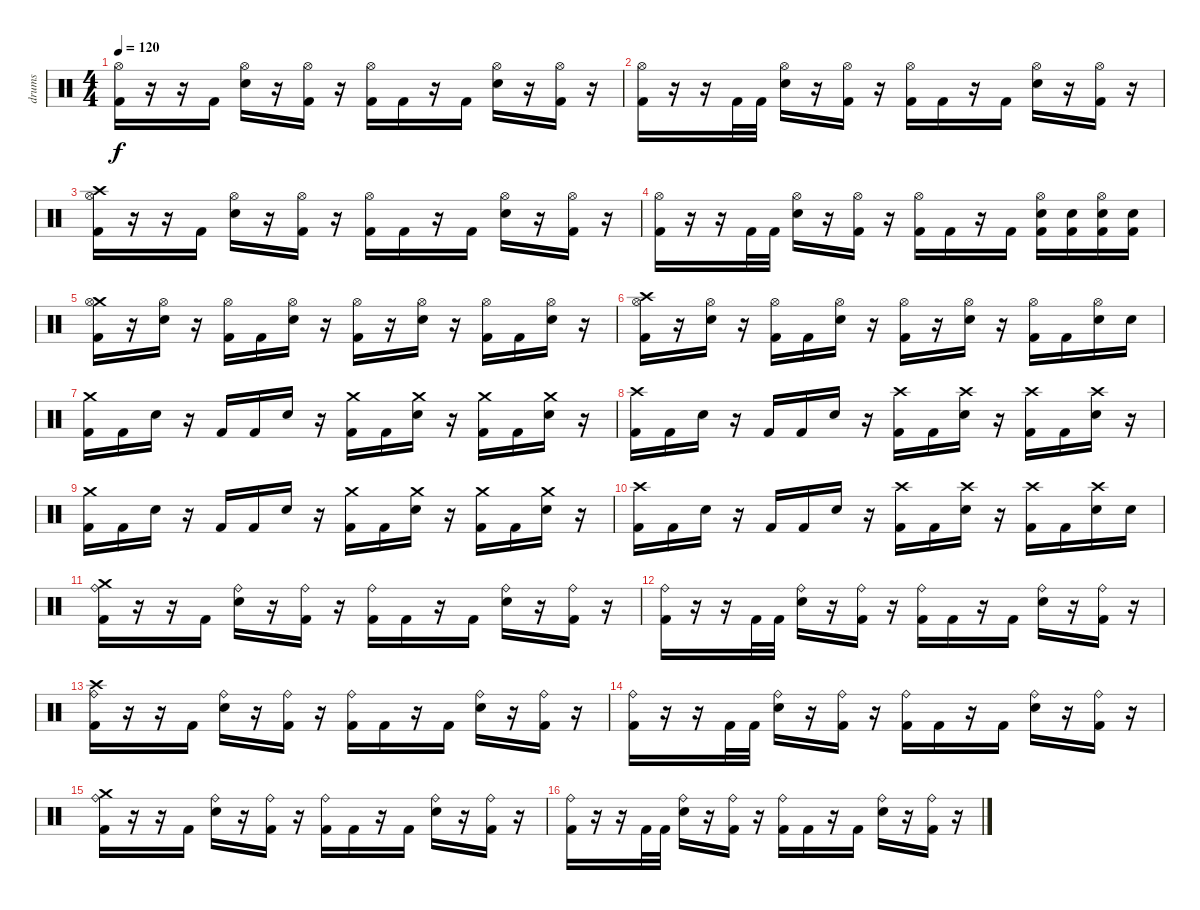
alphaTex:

\track ("drums" "drums") {instrument percussion}
\staff {score}
\articulation defaults
\ts (4 4)
\tempo 120
\clef neutral
\ks c
("Hi-Hat (open)" "Kick (hit) 2").16{dy f} r.16 r.16 "Kick (hit) 2".16 ("Hi-Hat (open)" "Electric Snare (hit)").16 r.16 ("Hi-Hat (open)" "Kick (hit) 2").16 r.16 ("Hi-Hat (open)" "Kick (hit) 2").16 "Kick (hit) 2".16 r.16 "Kick (hit) 2".16 ("Hi-Hat (open)" "Electric Snare (hit)").16 r.16 ("Hi-Hat (open)" "Kick (hit) 2").16 r.16 |
("Hi-Hat (open)" "Kick (hit) 2").16 r.16 r.16 "Kick (hit) 2".32 "Kick (hit) 2".32 ("Hi-Hat (open)" "Electric Snare (hit)").16 r.16 ("Hi-Hat (open)" "Kick (hit) 2").16 r.16 ("Hi-Hat (open)" "Kick (hit) 2").16 "Kick (hit) 2".16 r.16 "Kick (hit) 2".16 ("Hi-Hat (open)" "Electric Snare (hit)").16 r.16 ("Hi-Hat (open)" "Kick (hit) 2").16 r.16 |
("Crash high (hit)" "Hi-Hat (open)" "Kick (hit) 2").16 r.16 r.16 "Kick (hit) 2".16 ("Hi-Hat (open)" "Electric Snare (hit)").16 r.16 ("Hi-Hat (open)" "Kick (hit) 2").16 r.16 ("Hi-Hat (open)" "Kick (hit) 2").16 "Kick (hit) 2".16 r.16 "Kick (hit) 2".16 ("Hi-Hat (open)" "Electric Snare (hit)").16 r.16 ("Hi-Hat (open)" "Kick (hit) 2").16 r.16 |
("Hi-Hat (open)" "Kick (hit) 2").16 r.16 r.16 "Kick (hit) 2".32 "Kick (hit) 2".32 ("Hi-Hat (open)" "Electric Snare (hit)").16 r.16 ("Hi-Hat (open)" "Kick (hit) 2").16 r.16 ("Hi-Hat (open)" "Kick (hit) 2").16 "Kick (hit) 2".16 r.16 "Kick (hit) 2".16 ("Hi-Hat (open)" "Electric Snare (hit)" "Kick (hit) 2").16 ("Electric Snare (hit)" "Kick (hit) 2").16 ("Hi-Hat (open)" "Electric Snare (hit)" "Kick (hit) 2").16 ("Electric Snare (hit)" "Kick (hit) 2").16 |
("Crash medium (hit)" "Hi-Hat (open)" "Kick (hit) 2").16 r.16 ("Hi-Hat (open)" "Electric Snare (hit)").16 r.16 ("Hi-Hat (open)" "Kick (hit) 2").16 "Kick (hit) 2".16 ("Hi-Hat (open)" "Electric Snare (hit)").16 r.16 ("Hi-Hat (open)" "Kick (hit) 2").16 r.16 ("Hi-Hat (open)" "Electric Snare (hit)").16 r.16 ("Hi-Hat (open)" "Kick (hit) 2").16 "Kick (hit) 2".16 ("Hi-Hat (open)" "Electric Snare (hit)").16 r.16 |
("Crash high (hit)" "Hi-Hat (open)" "Kick (hit) 2").16 r.16 ("Hi-Hat (open)" "Electric Snare (hit)").16 r.16 ("Hi-Hat (open)" "Kick (hit) 2").16 "Kick (hit) 2".16 ("Hi-Hat (open)" "Electric Snare (hit)").16 r.16 ("Hi-Hat (open)" "Kick (hit) 2").16 r.16 ("Hi-Hat (open)" "Electric Snare (hit)").16 r.16 ("Hi-Hat (open)" "Kick (hit) 2").16 "Kick (hit) 2".16 ("Hi-Hat (open)" "Electric Snare (hit)").16 "Electric Snare (hit)".16 |
("Crash medium (hit)" "Kick (hit) 2").16 "Kick (hit) 2".16 "Electric Snare (hit)".16 r.16 "Kick (hit) 2".16 "Kick (hit) 2".16 "Electric Snare (hit)".16 r.16 ("Crash medium (hit)" "Kick (hit) 2").16 "Kick (hit) 2".16 ("Crash medium (hit)" "Electric Snare (hit)").16 r.16 ("Crash medium (hit)" "Kick (hit) 2").16 "Kick (hit) 2".16 ("Crash medium (hit)" "Electric Snare (hit)").16 r.16 |
("Crash high (hit)" "Kick (hit) 2").16 "Kick (hit) 2".16 "Electric Snare (hit)".16 r.16 "Kick (hit) 2".16 "Kick (hit) 2".16 "Electric Snare (hit)".16 r.16 ("Crash high (hit)" "Kick (hit) 2").16 "Kick (hit) 2".16 ("Crash high (hit)" "Electric Snare (hit)").16 r.16 ("Crash high (hit)" "Kick (hit) 2").16 "Kick (hit) 2".16 ("Crash high (hit)" "Electric Snare (hit)").16 r.16 |
("Crash medium (hit)" "Kick (hit) 2").16 "Kick (hit) 2".16 "Electric Snare (hit)".16 r.16 "Kick (hit) 2".16 "Kick (hit) 2".16 "Electric Snare (hit)".16 r.16 ("Crash medium (hit)" "Kick (hit) 2").16 "Kick (hit) 2".16 ("Crash medium (hit)" "Electric Snare (hit)").16 r.16 ("Crash medium (hit)" "Kick (hit) 2").16 "Kick (hit) 2".16 ("Crash medium (hit)" "Electric Snare (hit)").16 r.16 |
("Crash high (hit)" "Kick (hit) 2").16 "Kick (hit) 2".16 "Electric Snare (hit)".16 r.16 "Kick (hit) 2".16 "Kick (hit) 2".16 "Electric Snare (hit)".16 r.16 ("Crash high (hit)" "Kick (hit) 2").16 "Kick (hit) 2".16 ("Crash high (hit)" "Electric Snare (hit)").16 r.16 ("Crash high (hit)" "Kick (hit) 2").16 "Kick (hit) 2".16 ("Crash high (hit)" "Electric Snare (hit)").16 "Electric Snare (hit)".16 |
("Crash medium (hit)" "Ride (bell)" "Kick (hit) 2").16 r.16 r.16 "Kick (hit) 2".16 ("Ride (bell)" "Electric Snare (hit)").16 r.16 ("Ride (bell)" "Kick (hit) 2").16 r.16 ("Ride (bell)" "Kick (hit) 2").16 "Kick (hit) 2".16 r.16 "Kick (hit) 2".16 ("Ride (bell)" "Electric Snare (hit)").16 r.16 ("Ride (bell)" "Kick (hit) 2").16 r.16 |
("Ride (bell)" "Kick (hit) 2").16 r.16 r.16 "Kick (hit) 2".32 "Kick (hit) 2".32 ("Ride (bell)" "Electric Snare (hit)").16 r.16 ("Ride (bell)" "Kick (hit) 2").16 r.16 ("Ride (bell)" "Kick (hit) 2").16 "Kick (hit) 2".16 r.16 "Kick (hit) 2".16 ("Ride (bell)" "Electric Snare (hit)").16 r.16 ("Ride (bell)" "Kick (hit) 2").16 r.16 |
("Crash high (hit)" "Ride (bell)" "Kick (hit) 2").16 r.16 r.16 "Kick (hit) 2".16 ("Ride (bell)" "Electric Snare (hit)").16 r.16 ("Ride (bell)" "Kick (hit) 2").16 r.16 ("Ride (bell)" "Kick (hit) 2").16 "Kick (hit) 2".16 r.16 "Kick (hit) 2".16 ("Ride (bell)" "Electric Snare (hit)").16 r.16 ("Ride (bell)" "Kick (hit) 2").16 r.16 |
("Ride (bell)" "Kick (hit) 2").16 r.16 r.16 "Kick (hit) 2".32 "Kick (hit) 2".32 ("Ride (bell)" "Electric Snare (hit)").16 r.16 ("Ride (bell)" "Kick (hit) 2").16 r.16 ("Ride (bell)" "Kick (hit) 2").16 "Kick (hit) 2".16 r.16 "Kick (hit) 2".16 ("Ride (bell)" "Electric Snare (hit)").16 r.16 ("Ride (bell)" "Kick (hit) 2").16 r.16 |
("Crash medium (hit)" "Ride (bell)" "Kick (hit) 2").16 r.16 r.16 "Kick (hit) 2".16 ("Ride (bell)" "Electric Snare (hit)").16 r.16 ("Ride (bell)" "Kick (hit) 2").16 r.16 ("Ride (bell)" "Kick (hit) 2").16 "Kick (hit) 2".16 r.16 "Kick (hit) 2".16 ("Ride (bell)" "Electric Snare (hit)").16 r.16 ("Ride (bell)" "Kick (hit) 2").16 r.16 |
("Ride (bell)" "Kick (hit) 2").16 r.16 r.16 "Kick (hit) 2".32 "Kick (hit) 2".32 ("Ride (bell)" "Electric Snare (hit)").16 r.16 ("Ride (bell)" "Kick (hit) 2").16 r.16 ("Ride (bell)" "Kick (hit) 2").16 "Kick (hit) 2".16 r.16 "Kick (hit) 2".16 ("Ride (bell)" "Electric Snare (hit)").16 r.16 ("Ride (bell)" "Kick (hit) 2").16 r.16
